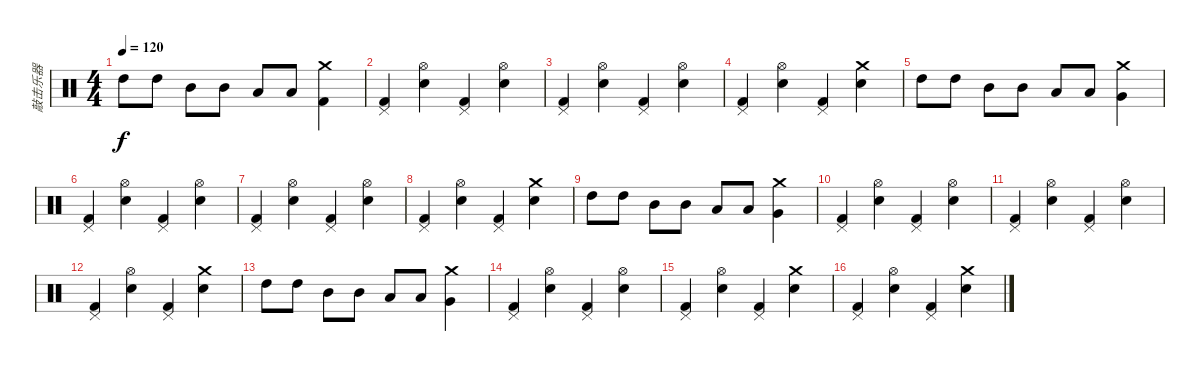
\track ("敲击乐器" "敲击乐器") {instrument percussion}
\staff {score}
\articulation defaults
\ts (4 4)
\tempo 120
\clef neutral
\ks c "High Tom (hit)".8{dy f} "High Tom (hit)".8 "Mid Tom (hit)".8 "Mid Tom (hit)".8 "Low Tom (hit)".8 "Low Tom (hit)".8
("Crash medium (hit)" "Kick (hit) 2").4 |
("Pedal Hi-Hat (hit)" "Kick (hit) 2").4 ("Hi-Hat (open)" "Electric Snare (hit)").4 ("Pedal Hi-Hat (hit)" "Kick (hit) 2").4 ("Hi-Hat (open)" "Electric Snare (hit)").4 |
("Pedal Hi-Hat (hit)" "Kick (hit) 2").4 ("Hi-Hat (open)" "Electric Snare (hit)").4 ("Pedal Hi-Hat (hit)" "Kick (hit) 2").4 ("Hi-Hat (open)" "Electric Snare (hit)").4 |
("Pedal Hi-Hat (hit)" "Kick (hit) 2").4 ("Hi-Hat (open)" "Electric Snare (hit)").4 ("Pedal Hi-Hat (hit)" "Kick (hit) 2").4 ("Crash medium (hit)" "Electric Snare (hit)").4 |
"High Tom (hit)".8 "High Tom (hit)".8 "Mid Tom (hit)".8 "Mid Tom (hit)".8 "Low Tom (hit)".8 "Low Tom (hit)".8 ("Crash medium (hit)" "Very Low Tom (hit)").4 |
("Pedal Hi-Hat (hit)" "Kick (hit) 2").4 ("Hi-Hat (open)" "Electric Snare (hit)").4 ("Pedal Hi-Hat (hit)" "Kick (hit) 2").4 ("Hi-Hat (open)" "Electric Snare (hit)").4 |
("Pedal Hi-Hat (hit)" "Kick (hit) 2").4 ("Hi-Hat (open)" "Electric Snare (hit)").4 ("Pedal Hi-Hat (hit)" "Kick (hit) 2").4 ("Hi-Hat (open)" "Electric Snare (hit)").4 |
("Pedal Hi-Hat (hit)" "Kick (hit) 2").4 ("Hi-Hat (open)" "Electric Snare (hit)").4 ("Pedal Hi-Hat (hit)" "Kick (hit) 2").4 ("Crash medium (hit)" "Electric Snare (hit)").4 |
"High Tom (hit)".8 "High Tom (hit)".8 "Mid Tom (hit)".8 "Mid Tom (hit)".8 "Low Tom (hit)".8 "Low Tom (hit)".8 ("Crash medium (hit)" "Very Low Tom (hit)").4 |
("Pedal Hi-Hat (hit)" "Kick (hit) 2").4 ("Hi-Hat (open)" "Electric Snare (hit)").4 ("Pedal Hi-Hat (hit)" "Kick (hit) 2").4 ("Hi-Hat (open)" "Electric Snare (hit)").4 |
("Pedal Hi-Hat (hit)" "Kick (hit) 2").4 ("Hi-Hat (open)" "Electric Snare (hit)").4 ("Pedal Hi-Hat (hit)" "Kick (hit) 2").4 ("Hi-Hat (open)" "Electric Snare (hit)").4 |
("Pedal Hi-Hat (hit)" "Kick (hit) 2").4 ("Hi-Hat (open)" "Electric Snare (hit)").4 ("Pedal Hi-Hat (hit)" "Kick (hit) 2").4 ("Crash medium (hit)" "Electric Snare (hit)").4 |
"High Tom (hit)".8 "High Tom (hit)".8 "Mid Tom (hit)".8 "Mid Tom (hit)".8 "Low Tom (hit)".8 "Low Tom (hit)".8 ("Crash medium (hit)" "Very Low Tom (hit)").4 |
("Pedal Hi-Hat (hit)" "Kick (hit) 2").4 ("Hi-Hat (open)" "Electric Snare (hit)").4 ("Pedal Hi-Hat (hit)" "Kick (hit) 2").4 ("Hi-Hat (open)" "Electric Snare (hit)").4 |
("Pedal Hi-Hat (hit)" "Kick (hit) 2").4 ("Hi-Hat (open)" "Electric Snare (hit)").4 ("Pedal Hi-Hat (hit)" "Kick (hit) 2").4 ("Crash medium (hit)" "Electric Snare (hit)").4 |
("Pedal Hi-Hat (hit)" "Kick (hit) 2").4 ("Hi-Hat (open)" "Electric Snare (hit)").4 ("Pedal Hi-Hat (hit)" "Kick (hit) 2").4 ("Crash medium (hit)" "Electric Snare (hit)").4
